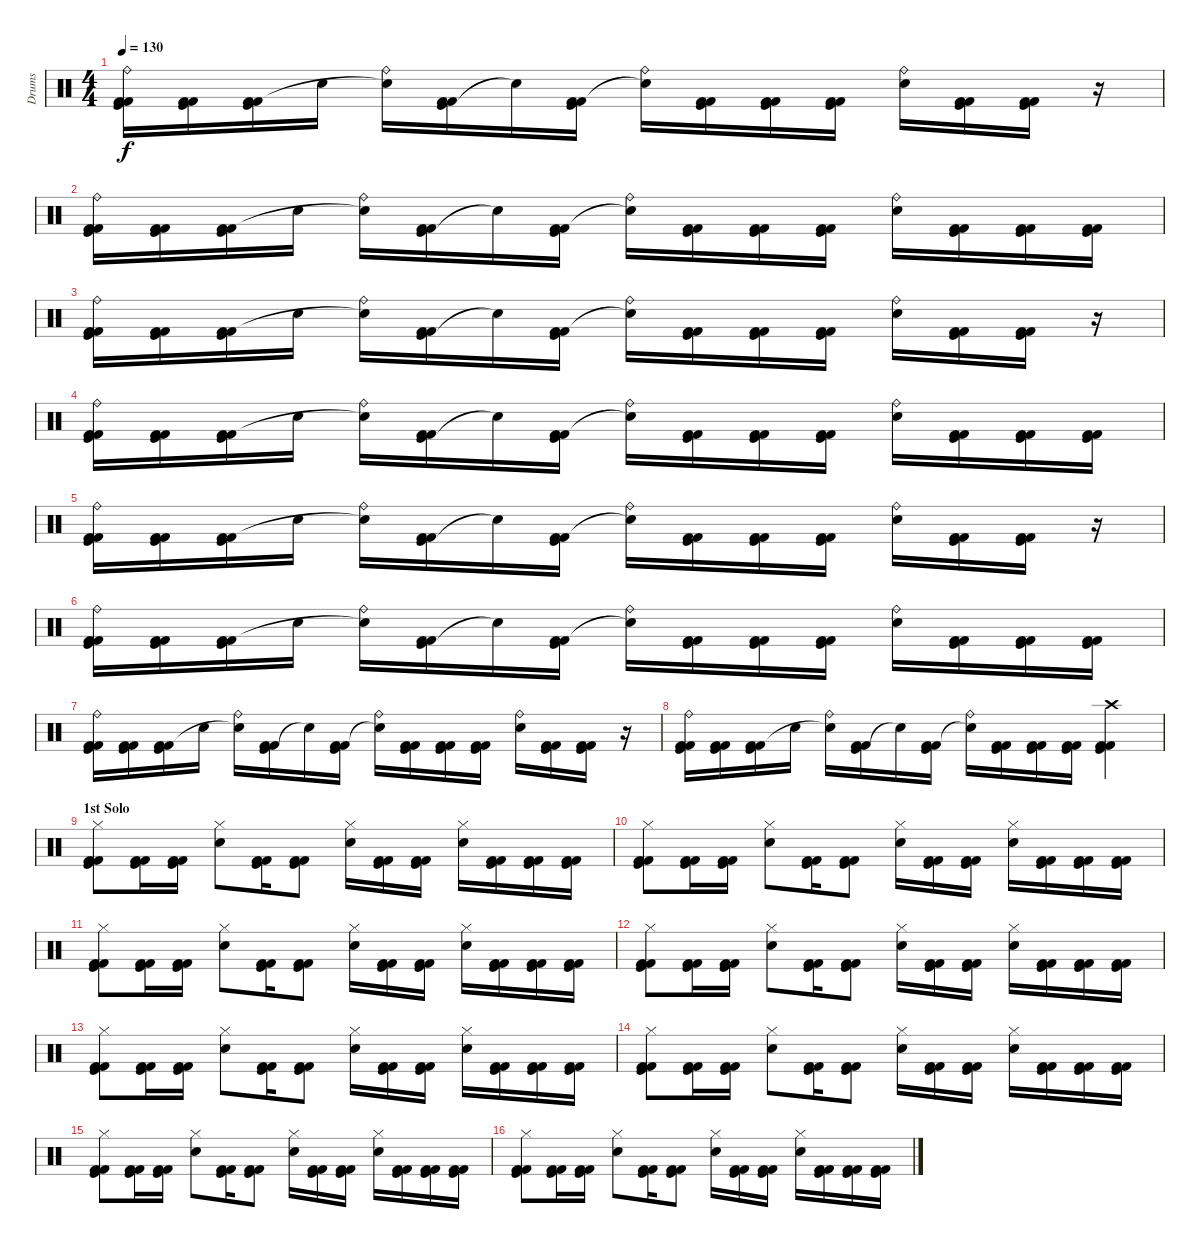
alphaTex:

\track ("Drums" "Drums") {instrument percussion}
\staff {score}
\articulation defaults
\ts (4 4)
\tempo 130
\clef neutral
\ks c
("Ride (bell)" "Kick (hit)" "Kick (hit) 2" "Kick (hit) 2").16{dy f} ("Kick (hit)" "Kick (hit) 2" "Kick (hit) 2").16 ("Kick (hit)" "Kick (hit) 2" "Kick (hit) 2").16 "Electric Snare (hit)".16 ("Ride (bell)" "Snare (hit)"{t}).16 ("Kick (hit)" "Kick (hit) 2" "Kick (hit) 2").16 "Snare (hit)"{t}.16 ("Kick (hit)" "Kick (hit) 2" "Kick (hit) 2").16 ("Ride (bell)" "Snare (hit)"{t}).16 ("Kick (hit)" "Kick (hit) 2" "Kick (hit) 2").16 ("Kick (hit)" "Kick (hit) 2" "Kick (hit) 2").16 ("Kick (hit)" "Kick (hit) 2" "Kick (hit) 2").16 ("Ride (bell)" "Electric Snare (hit)").16 ("Kick (hit)" "Kick (hit) 2" "Kick (hit) 2").16 ("Kick (hit)" "Kick (hit) 2" "Kick (hit) 2").16 r.16 |
("Ride (bell)" "Kick (hit)" "Kick (hit) 2" "Kick (hit) 2").16 ("Kick (hit)" "Kick (hit) 2" "Kick (hit) 2").16 ("Kick (hit)" "Kick (hit) 2" "Kick (hit) 2").16 "Electric Snare (hit)".16 ("Ride (bell)" "Snare (hit)"{t}).16 ("Kick (hit)" "Kick (hit) 2" "Kick (hit) 2").16 "Snare (hit)"{t}.16 ("Kick (hit)" "Kick (hit) 2" "Kick (hit) 2").16 ("Ride (bell)" "Snare (hit)"{t}).16 ("Kick (hit)" "Kick (hit) 2" "Kick (hit) 2").16 ("Kick (hit)" "Kick (hit) 2" "Kick (hit) 2").16 ("Kick (hit)" "Kick (hit) 2" "Kick (hit) 2").16 ("Ride (bell)" "Electric Snare (hit)").16 ("Kick (hit)" "Kick (hit) 2" "Kick (hit) 2").16 ("Kick (hit)" "Kick (hit) 2" "Kick (hit) 2").16 ("Kick (hit)" "Kick (hit) 2" "Kick (hit) 2").16 |
("Ride (bell)" "Kick (hit)" "Kick (hit) 2" "Kick (hit) 2").16 ("Kick (hit)" "Kick (hit) 2" "Kick (hit) 2").16 ("Kick (hit)" "Kick (hit) 2" "Kick (hit) 2").16 "Electric Snare (hit)".16 ("Ride (bell)" "Snare (hit)"{t}).16 ("Kick (hit)" "Kick (hit) 2" "Kick (hit) 2").16 "Snare (hit)"{t}.16 ("Kick (hit)" "Kick (hit) 2" "Kick (hit) 2").16 ("Ride (bell)" "Snare (hit)"{t}).16 ("Kick (hit)" "Kick (hit) 2" "Kick (hit) 2").16 ("Kick (hit)" "Kick (hit) 2" "Kick (hit) 2").16 ("Kick (hit)" "Kick (hit) 2" "Kick (hit) 2").16 ("Ride (bell)" "Electric Snare (hit)").16 ("Kick (hit)" "Kick (hit) 2" "Kick (hit) 2").16 ("Kick (hit)" "Kick (hit) 2" "Kick (hit) 2").16 r.16 |
("Ride (bell)" "Kick (hit)" "Kick (hit) 2" "Kick (hit) 2").16 ("Kick (hit)" "Kick (hit) 2" "Kick (hit) 2").16 ("Kick (hit)" "Kick (hit) 2" "Kick (hit) 2").16 "Electric Snare (hit)".16 ("Ride (bell)" "Snare (hit)"{t}).16 ("Kick (hit)" "Kick (hit) 2" "Kick (hit) 2").16 "Snare (hit)"{t}.16 ("Kick (hit)" "Kick (hit) 2" "Kick (hit) 2").16 ("Ride (bell)" "Snare (hit)"{t}).16 ("Kick (hit)" "Kick (hit) 2" "Kick (hit) 2").16 ("Kick (hit)" "Kick (hit) 2" "Kick (hit) 2").16 ("Kick (hit)" "Kick (hit) 2" "Kick (hit) 2").16 ("Ride (bell)" "Electric Snare (hit)").16 ("Kick (hit)" "Kick (hit) 2" "Kick (hit) 2").16 ("Kick (hit)" "Kick (hit) 2" "Kick (hit) 2").16 ("Kick (hit)" "Kick (hit) 2" "Kick (hit) 2").16 |
("Ride (bell)" "Kick (hit)" "Kick (hit) 2" "Kick (hit) 2").16 ("Kick (hit)" "Kick (hit) 2" "Kick (hit) 2").16 ("Kick (hit)" "Kick (hit) 2" "Kick (hit) 2").16 "Electric Snare (hit)".16 ("Ride (bell)" "Snare (hit)"{t}).16 ("Kick (hit)" "Kick (hit) 2" "Kick (hit) 2").16 "Snare (hit)"{t}.16 ("Kick (hit)" "Kick (hit) 2" "Kick (hit) 2").16 ("Ride (bell)" "Snare (hit)"{t}).16 ("Kick (hit)" "Kick (hit) 2" "Kick (hit) 2").16 ("Kick (hit)" "Kick (hit) 2" "Kick (hit) 2").16 ("Kick (hit)" "Kick (hit) 2" "Kick (hit) 2").16 ("Ride (bell)" "Electric Snare (hit)").16 ("Kick (hit)" "Kick (hit) 2" "Kick (hit) 2").16 ("Kick (hit)" "Kick (hit) 2" "Kick (hit) 2").16 r.16 |
("Ride (bell)" "Kick (hit)" "Kick (hit) 2" "Kick (hit) 2").16 ("Kick (hit)" "Kick (hit) 2" "Kick (hit) 2").16 ("Kick (hit)" "Kick (hit) 2" "Kick (hit) 2").16 "Electric Snare (hit)".16 ("Ride (bell)" "Snare (hit)"{t}).16 ("Kick (hit)" "Kick (hit) 2" "Kick (hit) 2").16 "Snare (hit)"{t}.16 ("Kick (hit)" "Kick (hit) 2" "Kick (hit) 2").16 ("Ride (bell)" "Snare (hit)"{t}).16 ("Kick (hit)" "Kick (hit) 2" "Kick (hit) 2").16 ("Kick (hit)" "Kick (hit) 2" "Kick (hit) 2").16 ("Kick (hit)" "Kick (hit) 2" "Kick (hit) 2").16 ("Ride (bell)" "Electric Snare (hit)").16 ("Kick (hit)" "Kick (hit) 2" "Kick (hit) 2").16 ("Kick (hit)" "Kick (hit) 2" "Kick (hit) 2").16 ("Kick (hit)" "Kick (hit) 2" "Kick (hit) 2").16 |
("Ride (bell)" "Kick (hit)" "Kick (hit) 2" "Kick (hit) 2").16 ("Kick (hit)" "Kick (hit) 2" "Kick (hit) 2").16 ("Kick (hit)" "Kick (hit) 2" "Kick (hit) 2").16 "Electric Snare (hit)".16 ("Ride (bell)" "Snare (hit)"{t}).16 ("Kick (hit)" "Kick (hit) 2" "Kick (hit) 2").16 "Snare (hit)"{t}.16 ("Kick (hit)" "Kick (hit) 2" "Kick (hit) 2").16 ("Ride (bell)" "Snare (hit)"{t}).16 ("Kick (hit)" "Kick (hit) 2" "Kick (hit) 2").16 ("Kick (hit)" "Kick (hit) 2" "Kick (hit) 2").16 ("Kick (hit)" "Kick (hit) 2" "Kick (hit) 2").16 ("Ride (bell)" "Electric Snare (hit)").16 ("Kick (hit)" "Kick (hit) 2" "Kick (hit) 2").16 ("Kick (hit)" "Kick (hit) 2" "Kick (hit) 2").16 r.16 |
("Ride (bell)" "Kick (hit)" "Kick (hit) 2" "Kick (hit) 2").16 ("Kick (hit)" "Kick (hit) 2" "Kick (hit) 2").16 ("Kick (hit)" "Kick (hit) 2" "Kick (hit) 2").16 "Electric Snare (hit)".16 ("Ride (bell)" "Snare (hit)"{t}).16 ("Kick (hit)" "Kick (hit) 2" "Kick (hit) 2").16 "Snare (hit)"{t}.16 ("Kick (hit)" "Kick (hit) 2" "Kick (hit) 2").16 ("Ride (bell)" "Snare (hit)"{t}).16 ("Kick (hit)" "Kick (hit) 2" "Kick (hit) 2").16 ("Kick (hit)" "Kick (hit) 2" "Kick (hit) 2").16 ("Kick (hit)" "Kick (hit) 2" "Kick (hit) 2").16 ("Crash high (hit)" "Kick (hit)" "Kick (hit) 2" "Kick (hit) 2").4 |
\section ("" "1st Solo")
("Hi-Hat (closed)" "Kick (hit)" "Kick (hit) 2" "Kick (hit) 2").8 ("Kick (hit)" "Kick (hit) 2" "Kick (hit) 2").16 ("Kick (hit)" "Kick (hit) 2" "Kick (hit) 2").16 ("Hi-Hat (closed)" "Electric Snare (hit)").8 ("Kick (hit)" "Kick (hit) 2" "Kick (hit) 2").16 ("Kick (hit)" "Kick (hit) 2" "Kick (hit) 2").8 ("Hi-Hat (closed)" "Electric Snare (hit)").16 ("Kick (hit)" "Kick (hit) 2" "Kick (hit) 2").16 ("Kick (hit)" "Kick (hit) 2" "Kick (hit) 2").16 ("Hi-Hat (closed)" "Electric Snare (hit)").16 ("Kick (hit)" "Kick (hit) 2" "Kick (hit) 2").16 ("Kick (hit)" "Kick (hit) 2" "Kick (hit) 2").16 ("Kick (hit)" "Kick (hit) 2" "Kick (hit) 2").16 |
("Hi-Hat (closed)" "Kick (hit)" "Kick (hit) 2" "Kick (hit) 2").8 ("Kick (hit)" "Kick (hit) 2" "Kick (hit) 2").16 ("Kick (hit)" "Kick (hit) 2" "Kick (hit) 2").16 ("Hi-Hat (closed)" "Electric Snare (hit)").8 ("Kick (hit)" "Kick (hit) 2" "Kick (hit) 2").16 ("Kick (hit)" "Kick (hit) 2" "Kick (hit) 2").8 ("Hi-Hat (closed)" "Electric Snare (hit)").16 ("Kick (hit)" "Kick (hit) 2" "Kick (hit) 2").16 ("Kick (hit)" "Kick (hit) 2" "Kick (hit) 2").16 ("Hi-Hat (closed)" "Electric Snare (hit)").16 ("Kick (hit)" "Kick (hit) 2" "Kick (hit) 2").16 ("Kick (hit)" "Kick (hit) 2" "Kick (hit) 2").16 ("Kick (hit)" "Kick (hit) 2" "Kick (hit) 2").16 |
("Hi-Hat (closed)" "Kick (hit)" "Kick (hit) 2" "Kick (hit) 2").8 ("Kick (hit)" "Kick (hit) 2" "Kick (hit) 2").16 ("Kick (hit)" "Kick (hit) 2" "Kick (hit) 2").16 ("Hi-Hat (closed)" "Electric Snare (hit)").8 ("Kick (hit)" "Kick (hit) 2" "Kick (hit) 2").16 ("Kick (hit)" "Kick (hit) 2" "Kick (hit) 2").8 ("Hi-Hat (closed)" "Electric Snare (hit)").16 ("Kick (hit)" "Kick (hit) 2" "Kick (hit) 2").16 ("Kick (hit)" "Kick (hit) 2" "Kick (hit) 2").16 ("Hi-Hat (closed)" "Electric Snare (hit)").16 ("Kick (hit)" "Kick (hit) 2" "Kick (hit) 2").16 ("Kick (hit)" "Kick (hit) 2" "Kick (hit) 2").16 ("Kick (hit)" "Kick (hit) 2" "Kick (hit) 2").16 |
("Hi-Hat (closed)" "Kick (hit)" "Kick (hit) 2" "Kick (hit) 2").8 ("Kick (hit)" "Kick (hit) 2" "Kick (hit) 2").16 ("Kick (hit)" "Kick (hit) 2" "Kick (hit) 2").16 ("Hi-Hat (closed)" "Electric Snare (hit)").8 ("Kick (hit)" "Kick (hit) 2" "Kick (hit) 2").16 ("Kick (hit)" "Kick (hit) 2" "Kick (hit) 2").8 ("Hi-Hat (closed)" "Electric Snare (hit)").16 ("Kick (hit)" "Kick (hit) 2" "Kick (hit) 2").16 ("Kick (hit)" "Kick (hit) 2" "Kick (hit) 2").16 ("Hi-Hat (closed)" "Electric Snare (hit)").16 ("Kick (hit)" "Kick (hit) 2" "Kick (hit) 2").16 ("Kick (hit)" "Kick (hit) 2" "Kick (hit) 2").16 ("Kick (hit)" "Kick (hit) 2" "Kick (hit) 2").16 |
("Hi-Hat (closed)" "Kick (hit)" "Kick (hit) 2" "Kick (hit) 2").8 ("Kick (hit)" "Kick (hit) 2" "Kick (hit) 2").16 ("Kick (hit)" "Kick (hit) 2" "Kick (hit) 2").16 ("Hi-Hat (closed)" "Electric Snare (hit)").8 ("Kick (hit)" "Kick (hit) 2" "Kick (hit) 2").16 ("Kick (hit)" "Kick (hit) 2" "Kick (hit) 2").8 ("Hi-Hat (closed)" "Electric Snare (hit)").16 ("Kick (hit)" "Kick (hit) 2" "Kick (hit) 2").16 ("Kick (hit)" "Kick (hit) 2" "Kick (hit) 2").16 ("Hi-Hat (closed)" "Electric Snare (hit)").16 ("Kick (hit)" "Kick (hit) 2" "Kick (hit) 2").16 ("Kick (hit)" "Kick (hit) 2" "Kick (hit) 2").16 ("Kick (hit)" "Kick (hit) 2" "Kick (hit) 2").16 |
("Hi-Hat (closed)" "Kick (hit)" "Kick (hit) 2" "Kick (hit) 2").8 ("Kick (hit)" "Kick (hit) 2" "Kick (hit) 2").16 ("Kick (hit)" "Kick (hit) 2" "Kick (hit) 2").16 ("Hi-Hat (closed)" "Electric Snare (hit)").8 ("Kick (hit)" "Kick (hit) 2" "Kick (hit) 2").16 ("Kick (hit)" "Kick (hit) 2" "Kick (hit) 2").8 ("Hi-Hat (closed)" "Electric Snare (hit)").16 ("Kick (hit)" "Kick (hit) 2" "Kick (hit) 2").16 ("Kick (hit)" "Kick (hit) 2" "Kick (hit) 2").16 ("Hi-Hat (closed)" "Electric Snare (hit)").16 ("Kick (hit)" "Kick (hit) 2" "Kick (hit) 2").16 ("Kick (hit)" "Kick (hit) 2" "Kick (hit) 2").16 ("Kick (hit)" "Kick (hit) 2" "Kick (hit) 2").16 |
("Hi-Hat (closed)" "Kick (hit)" "Kick (hit) 2" "Kick (hit) 2").8 ("Kick (hit)" "Kick (hit) 2" "Kick (hit) 2").16 ("Kick (hit)" "Kick (hit) 2" "Kick (hit) 2").16 ("Hi-Hat (closed)" "Electric Snare (hit)").8 ("Kick (hit)" "Kick (hit) 2" "Kick (hit) 2").16 ("Kick (hit)" "Kick (hit) 2" "Kick (hit) 2").8 ("Hi-Hat (closed)" "Electric Snare (hit)").16 ("Kick (hit)" "Kick (hit) 2" "Kick (hit) 2").16 ("Kick (hit)" "Kick (hit) 2" "Kick (hit) 2").16 ("Hi-Hat (closed)" "Electric Snare (hit)").16 ("Kick (hit)" "Kick (hit) 2" "Kick (hit) 2").16 ("Kick (hit)" "Kick (hit) 2" "Kick (hit) 2").16 ("Kick (hit)" "Kick (hit) 2" "Kick (hit) 2").16 |
("Hi-Hat (closed)" "Kick (hit)" "Kick (hit) 2" "Kick (hit) 2").8 ("Kick (hit)" "Kick (hit) 2" "Kick (hit) 2").16 ("Kick (hit)" "Kick (hit) 2" "Kick (hit) 2").16 ("Hi-Hat (closed)" "Electric Snare (hit)").8 ("Kick (hit)" "Kick (hit) 2" "Kick (hit) 2").16 ("Kick (hit)" "Kick (hit) 2" "Kick (hit) 2").8 ("Hi-Hat (closed)" "Electric Snare (hit)").16 ("Kick (hit)" "Kick (hit) 2" "Kick (hit) 2").16 ("Kick (hit)" "Kick (hit) 2" "Kick (hit) 2").16 ("Hi-Hat (closed)" "Electric Snare (hit)").16 ("Kick (hit)" "Kick (hit) 2" "Kick (hit) 2").16 ("Kick (hit)" "Kick (hit) 2" "Kick (hit) 2").16 ("Kick (hit)" "Kick (hit) 2" "Kick (hit) 2").16
